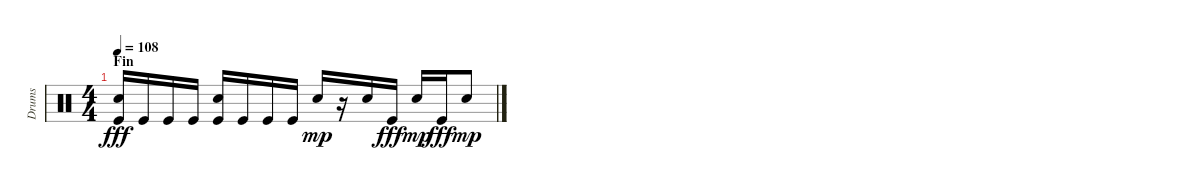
\track ("Drums" "Drums") {instrument percussion}
\staff {score}
\articulation defaults
\ts (4 4)
\section ("" "Fin")
\tempo 108
\clef neutral
\ks c
("Snare (hit) 2" "Kick (hit)").16{dy fff} "Kick (hit)".16 "Kick (hit)".16 "Kick (hit)".16 ("Snare (hit) 2" "Kick (hit)").16 "Kick (hit)".16 "Kick (hit)".16 "Kick (hit)".16 "Snare (hit) 2".16{dy mp} r.16 "Snare (hit) 2".16 "Kick (hit)".16{dy fff} "Snare (hit) 2".16{dy mp} "Kick (hit)".16{dy fff} "Snare (hit) 2".8{dy mp}
